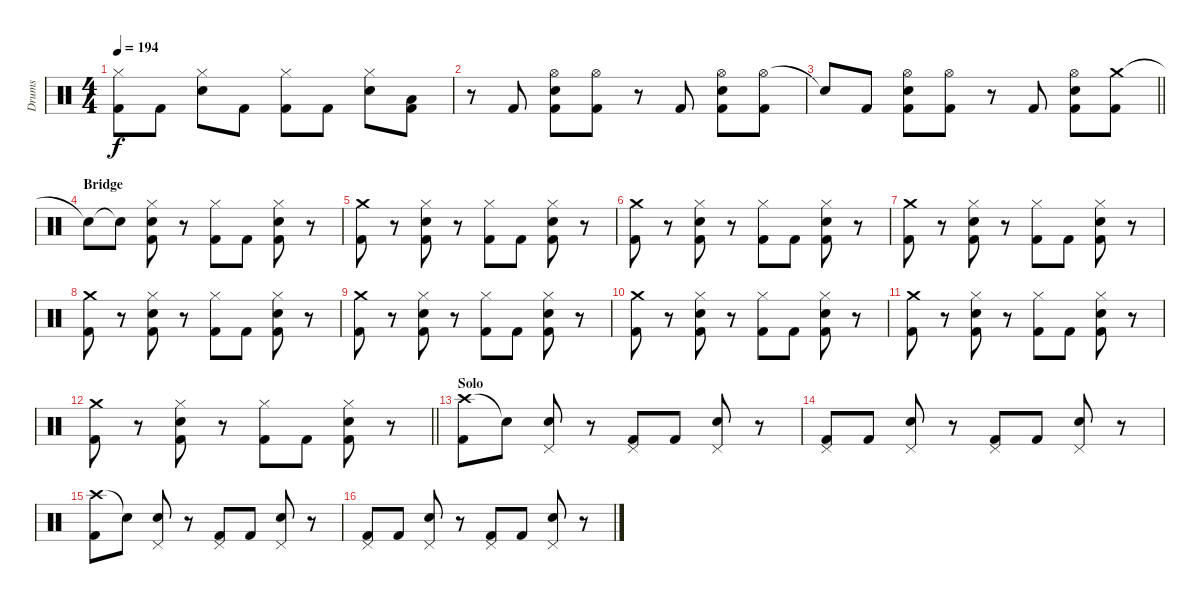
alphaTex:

\track ("Drums" "Drums") {instrument percussion}
\staff {score}
\articulation defaults
\ts (4 4)
\tempo 194
\clef neutral
\ks c
("Hi-Hat (closed)" "Kick (hit) 2").8{dy f} "Kick (hit) 2".8 ("Hi-Hat (closed)" "Snare (hit) 2").8 "Kick (hit) 2".8 ("Hi-Hat (closed)" "Kick (hit) 2").8 "Kick (hit) 2".8 ("Hi-Hat (closed)" "Snare (hit) 2").8 ("Low Tom (hit)" "Kick (hit) 2").8 |
r.8 "Kick (hit) 2".8 ("Hi-Hat (open)" "Snare (hit) 2" "Kick (hit) 2").8 ("Hi-Hat (open)" "Kick (hit) 2").8 r.8 "Kick (hit) 2".8 ("Hi-Hat (open)" "Snare (hit) 2" "Kick (hit) 2").8 ("Hi-Hat (open)" "Kick (hit) 2").8 |
\barLineRight lightlight "Snare (hit)"{t}.8 "Kick (hit) 2".8
("Hi-Hat (open)" "Snare (hit) 2" "Kick (hit) 2").8 ("Hi-Hat (open)" "Kick (hit) 2").8 r.8 "Kick (hit) 2".8 ("Hi-Hat (open)" "Snare (hit) 2" "Kick (hit) 2").8 ("Crash medium (hit)" "Kick (hit) 2").8 |
\section ("" "Bridge")
"Snare (hit)"{t}.8 "Snare (hit)"{t}.8 ("Hi-Hat (closed)" "Snare (hit) 2" "Kick (hit) 2").8 r.8 ("Hi-Hat (closed)" "Kick (hit) 2").8 "Kick (hit) 2".8 ("Hi-Hat (closed)" "Snare (hit) 2" "Kick (hit) 2").8 r.8 |
("Crash medium (hit)" "Kick (hit) 2").8 r.8 ("Hi-Hat (closed)" "Snare (hit) 2" "Kick (hit) 2").8 r.8 ("Hi-Hat (closed)" "Kick (hit) 2").8 "Kick (hit) 2".8 ("Hi-Hat (closed)" "Snare (hit) 2" "Kick (hit) 2").8 r.8 |
("Crash medium (hit)" "Kick (hit) 2").8 r.8 ("Hi-Hat (closed)" "Snare (hit) 2" "Kick (hit) 2").8 r.8 ("Hi-Hat (closed)" "Kick (hit) 2").8 "Kick (hit) 2".8 ("Hi-Hat (closed)" "Snare (hit) 2" "Kick (hit) 2").8 r.8 |
("Crash medium (hit)" "Kick (hit) 2").8 r.8 ("Hi-Hat (closed)" "Snare (hit) 2" "Kick (hit) 2").8 r.8 ("Hi-Hat (closed)" "Kick (hit) 2").8 "Kick (hit) 2".8 ("Hi-Hat (closed)" "Snare (hit) 2" "Kick (hit) 2").8 r.8 |
("Crash medium (hit)" "Kick (hit) 2").8 r.8 ("Hi-Hat (closed)" "Snare (hit) 2" "Kick (hit) 2").8 r.8 ("Hi-Hat (closed)" "Kick (hit) 2").8 "Kick (hit) 2".8 ("Hi-Hat (closed)" "Snare (hit) 2" "Kick (hit) 2").8 r.8 |
("Crash medium (hit)" "Kick (hit) 2").8 r.8 ("Hi-Hat (closed)" "Snare (hit) 2" "Kick (hit) 2").8 r.8 ("Hi-Hat (closed)" "Kick (hit) 2").8 "Kick (hit) 2".8 ("Hi-Hat (closed)" "Snare (hit) 2" "Kick (hit) 2").8 r.8 |
("Crash medium (hit)" "Kick (hit) 2").8 r.8 ("Hi-Hat (closed)" "Snare (hit) 2" "Kick (hit) 2").8 r.8 ("Hi-Hat (closed)" "Kick (hit) 2").8 "Kick (hit) 2".8 ("Hi-Hat (closed)" "Snare (hit) 2" "Kick (hit) 2").8 r.8 |
("Crash medium (hit)" "Kick (hit) 2").8 r.8 ("Hi-Hat (closed)" "Snare (hit) 2" "Kick (hit) 2").8 r.8 ("Hi-Hat (closed)" "Kick (hit) 2").8 "Kick (hit) 2".8 ("Hi-Hat (closed)" "Snare (hit) 2" "Kick (hit) 2").8 r.8 |
\barLineRight lightlight
("Crash medium (hit)" "Kick (hit) 2").8 r.8 ("Hi-Hat (closed)" "Snare (hit) 2" "Kick (hit) 2").8 r.8 ("Hi-Hat (closed)" "Kick (hit) 2").8 "Kick (hit) 2".8 ("Hi-Hat (closed)" "Snare (hit) 2" "Kick (hit) 2").8 r.8 |
\section ("" "Solo")
("Crash high (hit)" "Kick (hit) 2").8 "Snare (hit)"{t}.8 ("Pedal Hi-Hat (hit)" "Snare (hit) 2").8 r.8 ("Pedal Hi-Hat (hit)" "Kick (hit) 2").8 "Kick (hit) 2".8 ("Pedal Hi-Hat (hit)" "Snare (hit) 2").8 r.8 |
("Pedal Hi-Hat (hit)" "Kick (hit) 2").8 "Kick (hit) 2".8 ("Pedal Hi-Hat (hit)" "Snare (hit) 2").8 r.8 ("Pedal Hi-Hat (hit)" "Kick (hit) 2").8 "Kick (hit) 2".8 ("Pedal Hi-Hat (hit)" "Snare (hit) 2").8 r.8 |
("Crash high (hit)" "Kick (hit) 2").8 "Snare (hit)"{t}.8 ("Pedal Hi-Hat (hit)" "Snare (hit) 2").8 r.8 ("Pedal Hi-Hat (hit)" "Kick (hit) 2").8 "Kick (hit) 2".8 ("Pedal Hi-Hat (hit)" "Snare (hit) 2").8 r.8 |
("Pedal Hi-Hat (hit)" "Kick (hit) 2").8 "Kick (hit) 2".8 ("Pedal Hi-Hat (hit)" "Snare (hit) 2").8 r.8 ("Pedal Hi-Hat (hit)" "Kick (hit) 2").8 "Kick (hit) 2".8 ("Pedal Hi-Hat (hit)" "Snare (hit) 2").8 r.8
